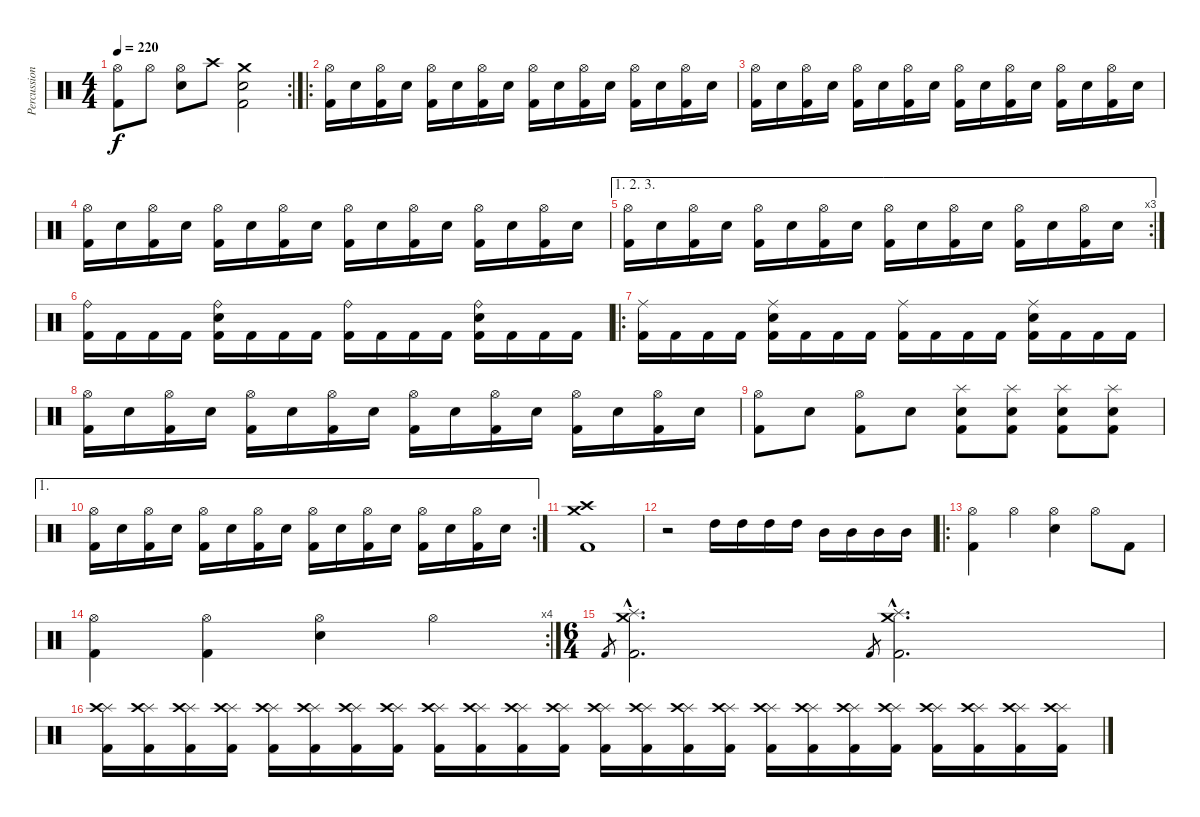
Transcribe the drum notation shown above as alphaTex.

\track ("Percussions" "Percussion") {instrument percussion}
\staff {score}
\articulation defaults
\rc 2
\ts (4 4)
\tempo 220
\clef neutral
\ks c
("Hi-Hat (open)" "Kick (hit) 2").8{dy f} "Hi-Hat (open)".8 ("Hi-Hat (open)" "Snare (hit) 2").8 "Crash high (hit)".8 ("Crash medium (hit)" "Snare (hit) 2" "Kick (hit) 2").2 |
\ro
("Hi-Hat (open)" "Kick (hit) 2").16 "Snare (hit) 2".16 ("Hi-Hat (open)" "Kick (hit) 2").16 "Snare (hit) 2".16 ("Hi-Hat (open)" "Kick (hit) 2").16 "Snare (hit) 2".16 ("Hi-Hat (open)" "Kick (hit) 2").16 "Snare (hit) 2".16 ("Hi-Hat (open)" "Kick (hit) 2").16 "Snare (hit) 2".16 ("Hi-Hat (open)" "Kick (hit) 2").16 "Snare (hit) 2".16 ("Hi-Hat (open)" "Kick (hit) 2").16 "Snare (hit) 2".16 ("Hi-Hat (open)" "Kick (hit) 2").16 "Snare (hit) 2".16 |
("Hi-Hat (open)" "Kick (hit) 2").16 "Snare (hit) 2".16 ("Hi-Hat (open)" "Kick (hit) 2").16 "Snare (hit) 2".16 ("Hi-Hat (open)" "Kick (hit) 2").16 "Snare (hit) 2".16 ("Hi-Hat (open)" "Kick (hit) 2").16 "Snare (hit) 2".16 ("Hi-Hat (open)" "Kick (hit) 2").16 "Snare (hit) 2".16 ("Hi-Hat (open)" "Kick (hit) 2").16 "Snare (hit) 2".16 ("Hi-Hat (open)" "Kick (hit) 2").16 "Snare (hit) 2".16 ("Hi-Hat (open)" "Kick (hit) 2").16 "Snare (hit) 2".16 |
("Hi-Hat (open)" "Kick (hit) 2").16 "Snare (hit) 2".16 ("Hi-Hat (open)" "Kick (hit) 2").16 "Snare (hit) 2".16 ("Hi-Hat (open)" "Kick (hit) 2").16 "Snare (hit) 2".16 ("Hi-Hat (open)" "Kick (hit) 2").16 "Snare (hit) 2".16 ("Hi-Hat (open)" "Kick (hit) 2").16 "Snare (hit) 2".16 ("Hi-Hat (open)" "Kick (hit) 2").16 "Snare (hit) 2".16 ("Hi-Hat (open)" "Kick (hit) 2").16 "Snare (hit) 2".16 ("Hi-Hat (open)" "Kick (hit) 2").16 "Snare (hit) 2".16 |
\ae (1 2 3)
\rc 3
("Hi-Hat (open)" "Kick (hit) 2").16 "Snare (hit) 2".16 ("Hi-Hat (open)" "Kick (hit) 2").16 "Snare (hit) 2".16 ("Hi-Hat (open)" "Kick (hit) 2").16 "Snare (hit) 2".16 ("Hi-Hat (open)" "Kick (hit) 2").16 "Snare (hit) 2".16 ("Hi-Hat (open)" "Kick (hit) 2").16 "Snare (hit) 2".16 ("Hi-Hat (open)" "Kick (hit) 2").16 "Snare (hit) 2".16 ("Hi-Hat (open)" "Kick (hit) 2").16 "Snare (hit) 2".16 ("Hi-Hat (open)" "Kick (hit) 2").16 "Snare (hit) 2".16 |
("Ride (bell)" "Kick (hit) 2").16 "Kick (hit) 2".16 "Kick (hit) 2".16 "Kick (hit) 2".16 ("Ride (bell)" "Snare (hit) 2" "Kick (hit) 2").16 "Kick (hit) 2".16 "Kick (hit) 2".16 "Kick (hit) 2".16 ("Ride (bell)" "Kick (hit) 2").16 "Kick (hit) 2".16 "Kick (hit) 2".16 "Kick (hit) 2".16 ("Ride (bell)" "Snare (hit) 2" "Kick (hit) 2").16 "Kick (hit) 2".16 "Kick (hit) 2".16 "Kick (hit) 2".16 |
\ro
("Ride (middle)" "Kick (hit) 2").16 "Kick (hit) 2".16 "Kick (hit) 2".16 "Kick (hit) 2".16 ("Ride (middle)" "Snare (hit) 2" "Kick (hit) 2").16 "Kick (hit) 2".16 "Kick (hit) 2".16 "Kick (hit) 2".16 ("Ride (middle)" "Kick (hit) 2").16 "Kick (hit) 2".16 "Kick (hit) 2".16 "Kick (hit) 2".16 ("Ride (middle)" "Snare (hit) 2" "Kick (hit) 2").16 "Kick (hit) 2".16 "Kick (hit) 2".16 "Kick (hit) 2".16 |
("Hi-Hat (open)" "Kick (hit) 2").16 "Snare (hit) 2".16 ("Hi-Hat (open)" "Kick (hit) 2").16 "Snare (hit) 2".16 ("Hi-Hat (open)" "Kick (hit) 2").16 "Snare (hit) 2".16 ("Hi-Hat (open)" "Kick (hit) 2").16 "Snare (hit) 2".16 ("Hi-Hat (open)" "Kick (hit) 2").16 "Snare (hit) 2".16 ("Hi-Hat (open)" "Kick (hit) 2").16 "Snare (hit) 2".16 ("Hi-Hat (open)" "Kick (hit) 2").16 "Snare (hit) 2".16 ("Hi-Hat (open)" "Kick (hit) 2").16 "Snare (hit) 2".16 |
("Hi-Hat (open)" "Kick (hit) 2").8 "Snare (hit) 2".8 ("Hi-Hat (open)" "Kick (hit) 2").8 "Snare (hit) 2".8 ("Splash (hit)" "Snare (hit) 2" "Kick (hit) 2").8 ("Splash (hit)" "Snare (hit) 2" "Kick (hit) 2").8 ("Splash (hit)" "Snare (hit) 2" "Kick (hit) 2").8 ("Splash (hit)" "Snare (hit) 2" "Kick (hit) 2").8 |
\ae 1
\rc 2
("Hi-Hat (open)" "Kick (hit) 2").16 "Snare (hit) 2".16 ("Hi-Hat (open)" "Kick (hit) 2").16 "Snare (hit) 2".16 ("Hi-Hat (open)" "Kick (hit) 2").16 "Snare (hit) 2".16 ("Hi-Hat (open)" "Kick (hit) 2").16 "Snare (hit) 2".16 ("Hi-Hat (open)" "Kick (hit) 2").16 "Snare (hit) 2".16 ("Hi-Hat (open)" "Kick (hit) 2").16 "Snare (hit) 2".16 ("Hi-Hat (open)" "Kick (hit) 2").16 "Snare (hit) 2".16 ("Hi-Hat (open)" "Kick (hit) 2").16 "Snare (hit) 2".16 |
("Crash medium (hit)" "Crash high (hit)" "Kick (hit) 2").1 |
r.2 "High Tom (hit)".16 "High Tom (hit)".16 "High Tom (hit)".16 "High Tom (hit)".16 "Mid Tom (hit)".16 "Mid Tom (hit)".16 "Mid Tom (hit)".16 "Mid Tom (hit)".16 |
\ro
("Hi-Hat (open)" "Kick (hit) 2").4 "Hi-Hat (open)".4 ("Hi-Hat (open)" "Snare (hit) 2").4 "Hi-Hat (open)".8 "Kick (hit) 2".8 |
\rc 4
("Hi-Hat (open)" "Kick (hit) 2").4 ("Hi-Hat (open)" "Kick (hit) 2").4 ("Hi-Hat (open)" "Snare (hit) 2").4 "Hi-Hat (open)".4 |
\ts (6 4)
"Kick (hit) 2".8{gr} ("Crash medium (hit)"{hac} "Splash (hit)"{hac} "Kick (hit) 2"{hac}).2{d} "Kick (hit) 2".8{gr} ("Crash medium (hit)"{hac} "Splash (hit)"{hac} "Kick (hit) 2"{hac}).2{d} |
("Splash (hit)" "Crash high (hit)" "Kick (hit) 2").16 ("Splash (hit)" "Crash high (hit)" "Kick (hit) 2").16 ("Splash (hit)" "Crash high (hit)" "Kick (hit) 2").16 ("Splash (hit)" "Crash high (hit)" "Kick (hit) 2").16 ("Splash (hit)" "Crash high (hit)" "Kick (hit) 2").16 ("Splash (hit)" "Crash high (hit)" "Kick (hit) 2").16 ("Splash (hit)" "Crash high (hit)" "Kick (hit) 2").16 ("Splash (hit)" "Crash high (hit)" "Kick (hit) 2").16 ("Splash (hit)" "Crash high (hit)" "Kick (hit) 2").16 ("Splash (hit)" "Crash high (hit)" "Kick (hit) 2").16 ("Splash (hit)" "Crash high (hit)" "Kick (hit) 2").16 ("Splash (hit)" "Crash high (hit)" "Kick (hit) 2").16 ("Splash (hit)" "Crash high (hit)" "Kick (hit) 2").16 ("Splash (hit)" "Crash high (hit)" "Kick (hit) 2").16 ("Splash (hit)" "Crash high (hit)" "Kick (hit) 2").16 ("Splash (hit)" "Crash high (hit)" "Kick (hit) 2").16 ("Splash (hit)" "Crash high (hit)" "Kick (hit) 2").16 ("Splash (hit)" "Crash high (hit)" "Kick (hit) 2").16 ("Splash (hit)" "Crash high (hit)" "Kick (hit) 2").16 ("Splash (hit)" "Crash high (hit)" "Kick (hit) 2").16 ("Splash (hit)" "Crash high (hit)" "Kick (hit) 2").16 ("Splash (hit)" "Crash high (hit)" "Kick (hit) 2").16 ("Splash (hit)" "Crash high (hit)" "Kick (hit) 2").16 ("Splash (hit)" "Crash high (hit)" "Kick (hit) 2").16
